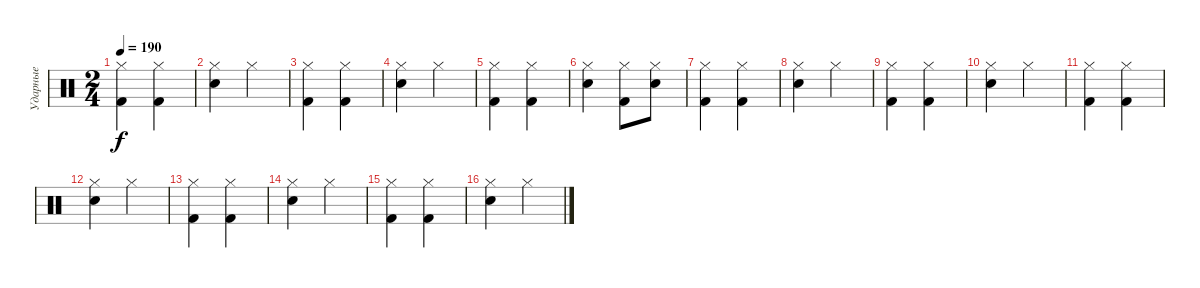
\track ("Ударные" "Ударные") {instrument percussion}
\staff {score}
\articulation defaults
\ts (2 4)
\tempo 190
\clef neutral
\ks c
("Hi-Hat (closed)" "Kick (hit) 2").4{dy f} ("Hi-Hat (closed)" "Kick (hit) 2").4 |
("Hi-Hat (closed)" "Snare (hit) 2").4 "Hi-Hat (closed)".4 |
("Hi-Hat (closed)" "Kick (hit) 2").4 ("Hi-Hat (closed)" "Kick (hit) 2").4 |
("Hi-Hat (closed)" "Snare (hit) 2").4 "Hi-Hat (closed)".4 |
("Hi-Hat (closed)" "Kick (hit) 2").4 ("Hi-Hat (closed)" "Kick (hit) 2").4 |
("Hi-Hat (closed)" "Snare (hit) 2").4 ("Hi-Hat (closed)" "Kick (hit) 2").8 ("Hi-Hat (closed)" "Snare (hit) 2").8 |
("Hi-Hat (closed)" "Kick (hit) 2").4 ("Hi-Hat (closed)" "Kick (hit) 2").4 |
("Hi-Hat (closed)" "Snare (hit) 2").4 "Hi-Hat (closed)".4 |
("Hi-Hat (closed)" "Kick (hit) 2").4 ("Hi-Hat (closed)" "Kick (hit) 2").4 |
("Hi-Hat (closed)" "Snare (hit) 2").4 "Hi-Hat (closed)".4 |
("Hi-Hat (closed)" "Kick (hit) 2").4 ("Hi-Hat (closed)" "Kick (hit) 2").4 |
("Hi-Hat (closed)" "Snare (hit) 2").4 "Hi-Hat (closed)".4 |
("Hi-Hat (closed)" "Kick (hit) 2").4 ("Hi-Hat (closed)" "Kick (hit) 2").4 |
("Hi-Hat (closed)" "Snare (hit) 2").4 "Hi-Hat (closed)".4 |
("Hi-Hat (closed)" "Kick (hit) 2").4 ("Hi-Hat (closed)" "Kick (hit) 2").4 |
("Hi-Hat (closed)" "Snare (hit) 2").4 "Hi-Hat (closed)".4
